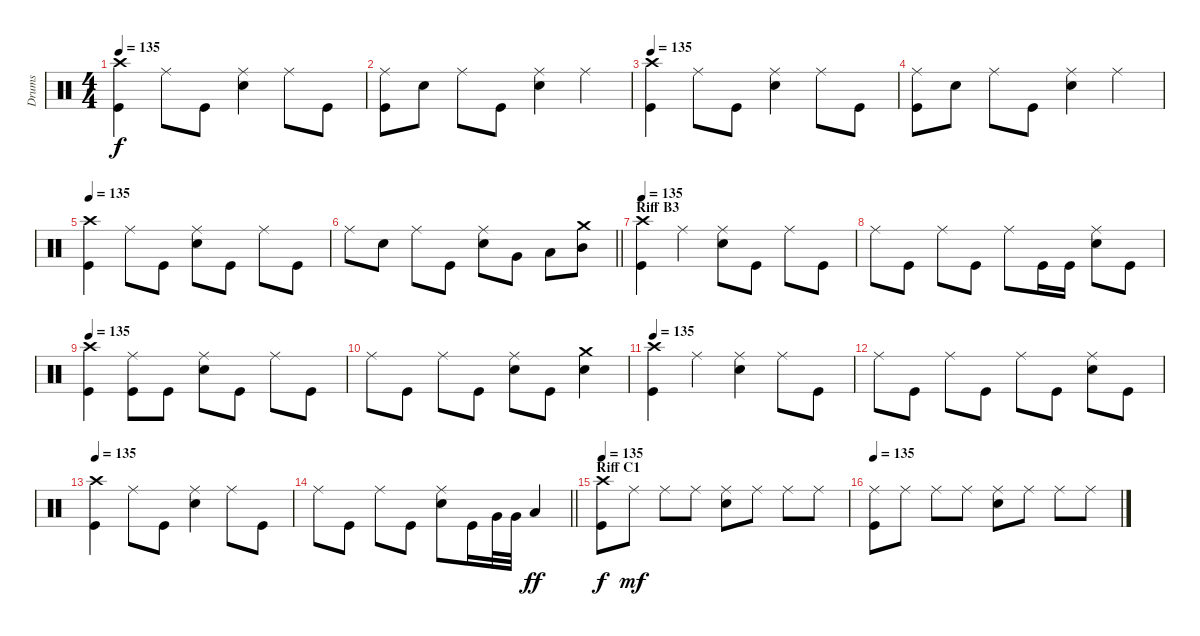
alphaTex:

\track ("Drums" "Drums") {instrument percussion}
\staff {score}
\articulation defaults
\ts (4 4)
\tempo 135
\clef neutral
\ks c
("Crash high (hit)" "Kick (hit)").4{dy f} "Ride (middle)".8 "Kick (hit)".8 ("Ride (middle)" "Snare (hit) 2").4 "Ride (middle)".8 "Kick (hit)".8 |
("Ride (middle)" "Kick (hit)").8 "Snare (hit) 2".8 "Ride (middle)".8 "Kick (hit)".8 ("Ride (middle)" "Snare (hit) 2").4 "Ride (middle)".4 |
\tempo 135
("Crash high (hit)" "Kick (hit)").4 "Ride (middle)".8 "Kick (hit)".8 ("Ride (middle)" "Snare (hit) 2").4 "Ride (middle)".8 "Kick (hit)".8 |
("Ride (middle)" "Kick (hit)").8 "Snare (hit) 2".8 "Ride (middle)".8 "Kick (hit)".8 ("Ride (middle)" "Snare (hit) 2").4 "Ride (middle)".4 |
\tempo 135
("Crash high (hit)" "Kick (hit)").4 "Ride (middle)".8 "Kick (hit)".8 ("Ride (middle)" "Snare (hit) 2").8 "Kick (hit)".8 "Ride (middle)".8 "Kick (hit)".8 |
\barLineRight lightlight "Ride (middle)".8 "Snare (hit) 2".8 "Ride (middle)".8 "Kick (hit)".8
("Ride (middle)" "Snare (hit) 2").8 "Very Low Tom (hit)".8 "Low Tom (hit)".8 ("Crash medium (hit)" "Mid Tom (hit)").8 |
\section ("" "Riff B3")
\tempo 135
("Crash high (hit)" "Kick (hit)").4 "Ride (middle)".4 ("Ride (middle)" "Snare (hit) 2").8 "Kick (hit)".8 "Ride (middle)".8 "Kick (hit)".8 |
"Ride (middle)".8 "Kick (hit)".8 "Ride (middle)".8 "Kick (hit)".8 "Ride (middle)".8 "Kick (hit)".16 "Kick (hit)".16 ("Ride (middle)" "Snare (hit) 2").8 "Kick (hit)".8 |
\tempo 135
("Crash high (hit)" "Kick (hit)").4 ("Ride (middle)" "Kick (hit)").8 "Kick (hit)".8 ("Ride (middle)" "Snare (hit) 2").8 "Kick (hit)".8 "Ride (middle)".8 "Kick (hit)".8 |
"Ride (middle)".8 "Kick (hit)".8 "Ride (middle)".8 "Kick (hit)".8 ("Ride (middle)" "Snare (hit) 2").8 "Kick (hit)".8 ("Crash medium (hit)" "Snare (hit) 2").4 |
\tempo 135
("Crash high (hit)" "Kick (hit)").4 "Ride (middle)".4 ("Ride (middle)" "Snare (hit) 2").4 "Ride (middle)".8 "Kick (hit)".8 |
"Ride (middle)".8 "Kick (hit)".8 "Ride (middle)".8 "Kick (hit)".8 "Ride (middle)".8 "Kick (hit)".8 ("Ride (middle)" "Snare (hit) 2").8 "Kick (hit)".8 |
\tempo 135
("Crash high (hit)" "Kick (hit)").4 "Ride (middle)".8 "Kick (hit)".8 ("Ride (middle)" "Snare (hit) 2").4 "Ride (middle)".8 "Kick (hit)".8 |
\barLineRight lightlight "Ride (middle)".8 "Kick (hit)".8 "Ride (middle)".8 "Kick (hit)".8
("Ride (middle)" "Snare (hit) 2").8 "Kick (hit)".16 "Very Low Tom (hit)".32 "Very Low Tom (hit)".32 "Low Tom (hit)".4{dy ff} |
\section ("" "Riff C1")
\tempo 135
("Crash high (hit)" "Kick (hit)").8{dy f} "Ride (middle)".8{dy mf} "Ride (middle)".8 "Ride (middle)".8 ("Ride (middle)" "Snare (hit) 2").8 "Ride (middle)".8 "Ride (middle)".8 "Ride (middle)".8 |
\tempo 135
("Ride (middle)" "Kick (hit)").8 "Ride (middle)".8 "Ride (middle)".8 "Ride (middle)".8 ("Ride (middle)" "Snare (hit) 2").8 "Ride (middle)".8 "Ride (middle)".8 "Ride (middle)".8
